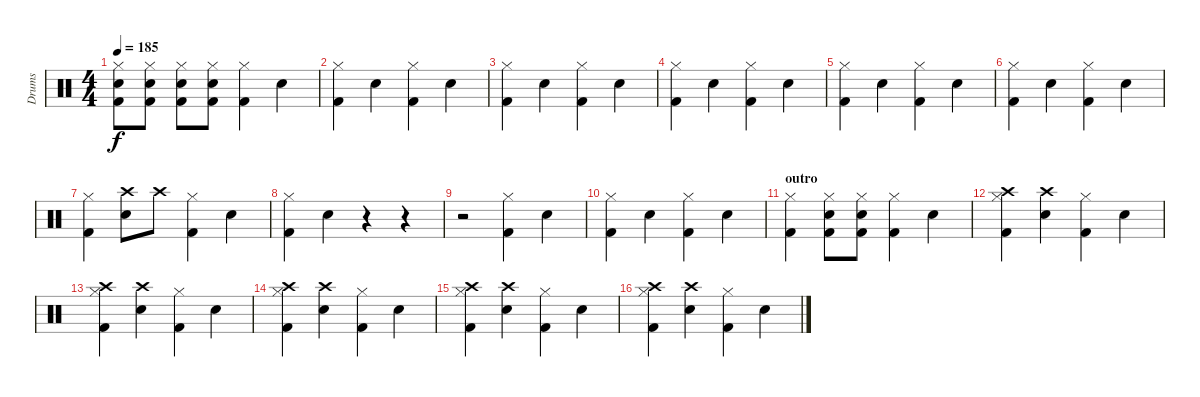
\track ("Drums" "Drums") {instrument percussion}
\staff {score}
\articulation defaults
\ts (4 4)
\tempo 185
\clef neutral
\ks c
("Hi-Hat (closed)" "Snare (hit) 2" "Kick (hit) 2").8{dy f} ("Hi-Hat (closed)" "Snare (hit) 2" "Kick (hit) 2").8 ("Hi-Hat (closed)" "Snare (hit) 2" "Kick (hit) 2").8 ("Hi-Hat (closed)" "Snare (hit) 2" "Kick (hit) 2").8 ("Hi-Hat (closed)" "Kick (hit) 2").4 "Snare (hit) 2".4 |
("Hi-Hat (closed)" "Kick (hit) 2").4 "Snare (hit) 2".4 ("Hi-Hat (closed)" "Kick (hit) 2").4 "Snare (hit) 2".4 |
("Hi-Hat (closed)" "Kick (hit) 2").4 "Snare (hit) 2".4 ("Hi-Hat (closed)" "Kick (hit) 2").4 "Snare (hit) 2".4 |
("Hi-Hat (closed)" "Kick (hit) 2").4 "Snare (hit) 2".4 ("Hi-Hat (closed)" "Kick (hit) 2").4 "Snare (hit) 2".4 |
("Hi-Hat (closed)" "Kick (hit) 2").4 "Snare (hit) 2".4 ("Hi-Hat (closed)" "Kick (hit) 2").4 "Snare (hit) 2".4 |
("Hi-Hat (closed)" "Kick (hit) 2").4 "Snare (hit) 2".4 ("Hi-Hat (closed)" "Kick (hit) 2").4 "Snare (hit) 2".4 |
("Hi-Hat (closed)" "Kick (hit) 2").4 ("Crash high (hit)" "Snare (hit) 2").8 "Crash high (hit)".8 ("Hi-Hat (closed)" "Kick (hit) 2").4 "Snare (hit) 2".4 |
("Hi-Hat (closed)" "Kick (hit) 2").4 "Snare (hit) 2".4 r.4 r.4 |
r.2 ("Hi-Hat (closed)" "Kick (hit) 2").4 "Snare (hit) 2".4 |
("Hi-Hat (closed)" "Kick (hit) 2").4 "Snare (hit) 2".4 ("Hi-Hat (closed)" "Kick (hit) 2").4 "Snare (hit) 2".4 |
\section ("" "outro")
("Hi-Hat (closed)" "Kick (hit) 2").4 ("Hi-Hat (closed)" "Snare (hit) 2" "Kick (hit) 2").8 ("Hi-Hat (closed)" "Snare (hit) 2" "Kick (hit) 2").8 ("Hi-Hat (closed)" "Kick (hit) 2").4 "Snare (hit) 2".4 |
("Hi-Hat (closed)" "Kick (hit) 2" "Crash high (hit)").4 ("Snare (hit) 2" "Crash high (hit)").4 ("Hi-Hat (closed)" "Kick (hit) 2").4 "Snare (hit) 2".4 |
("Hi-Hat (closed)" "Kick (hit) 2" "Crash high (hit)").4 ("Snare (hit) 2" "Crash high (hit)").4 ("Hi-Hat (closed)" "Kick (hit) 2").4 "Snare (hit) 2".4 |
("Hi-Hat (closed)" "Kick (hit) 2" "Crash high (hit)").4 ("Snare (hit) 2" "Crash high (hit)").4 ("Hi-Hat (closed)" "Kick (hit) 2").4 "Snare (hit) 2".4 |
("Hi-Hat (closed)" "Kick (hit) 2" "Crash high (hit)").4 ("Snare (hit) 2" "Crash high (hit)").4 ("Hi-Hat (closed)" "Kick (hit) 2").4 "Snare (hit) 2".4 |
("Hi-Hat (closed)" "Kick (hit) 2" "Crash high (hit)").4 ("Snare (hit) 2" "Crash high (hit)").4 ("Hi-Hat (closed)" "Kick (hit) 2").4 "Snare (hit) 2".4
